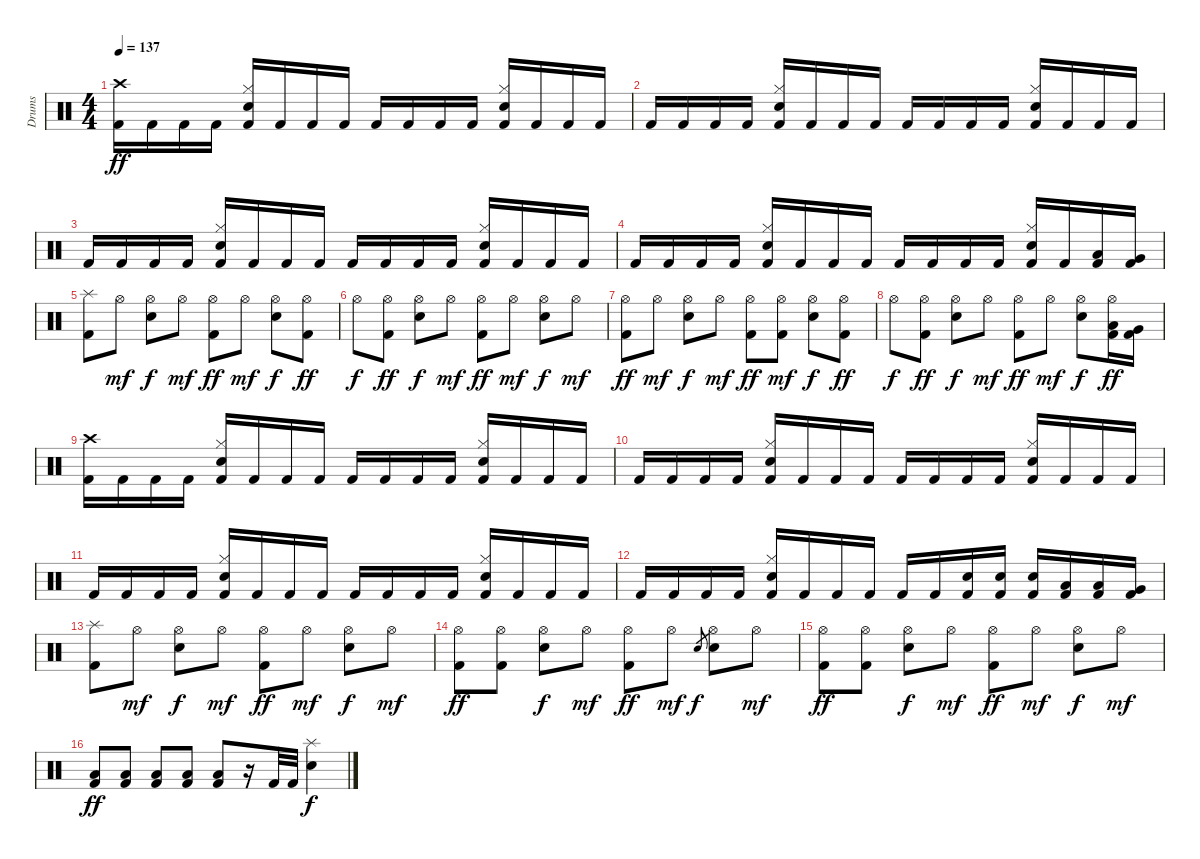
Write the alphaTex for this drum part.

\track ("Drums" "Drums") {instrument percussion}
\staff {score}
\articulation defaults
\ts (4 4)
\tempo 137
\clef neutral
\ks c
("Crash high (hit)" "Kick (hit) 2").16{dy ff} "Kick (hit) 2".16 "Kick (hit) 2".16 "Kick (hit) 2".16 ("Hi-Hat (closed)" "Electric Snare (hit)" "Kick (hit) 2").16 "Kick (hit) 2".16 "Kick (hit) 2".16 "Kick (hit) 2".16 "Kick (hit) 2".16 "Kick (hit) 2".16 "Kick (hit) 2".16 "Kick (hit) 2".16 ("Hi-Hat (closed)" "Electric Snare (hit)" "Kick (hit) 2").16 "Kick (hit) 2".16 "Kick (hit) 2".16 "Kick (hit) 2".16 |
"Kick (hit) 2".16 "Kick (hit) 2".16 "Kick (hit) 2".16 "Kick (hit) 2".16 ("Hi-Hat (closed)" "Electric Snare (hit)" "Kick (hit) 2").16 "Kick (hit) 2".16 "Kick (hit) 2".16 "Kick (hit) 2".16 "Kick (hit) 2".16 "Kick (hit) 2".16 "Kick (hit) 2".16 "Kick (hit) 2".16 ("Hi-Hat (closed)" "Electric Snare (hit)" "Kick (hit) 2").16 "Kick (hit) 2".16 "Kick (hit) 2".16 "Kick (hit) 2".16 |
"Kick (hit) 2".16 "Kick (hit) 2".16 "Kick (hit) 2".16 "Kick (hit) 2".16 ("Hi-Hat (closed)" "Electric Snare (hit)" "Kick (hit) 2").16 "Kick (hit) 2".16 "Kick (hit) 2".16 "Kick (hit) 2".16 "Kick (hit) 2".16 "Kick (hit) 2".16 "Kick (hit) 2".16 "Kick (hit) 2".16 ("Hi-Hat (closed)" "Electric Snare (hit)" "Kick (hit) 2").16 "Kick (hit) 2".16 "Kick (hit) 2".16 "Kick (hit) 2".16 |
"Kick (hit) 2".16 "Kick (hit) 2".16 "Kick (hit) 2".16 "Kick (hit) 2".16 ("Hi-Hat (closed)" "Electric Snare (hit)" "Kick (hit) 2").16 "Kick (hit) 2".16 "Kick (hit) 2".16 "Kick (hit) 2".16 "Kick (hit) 2".16 "Kick (hit) 2".16 "Kick (hit) 2".16 "Kick (hit) 2".16 ("Hi-Hat (closed)" "Electric Snare (hit)" "Kick (hit) 2").16 "Kick (hit) 2".16 ("Low Tom (hit)" "Kick (hit) 2").16 ("Very Low Tom (hit)" "Kick (hit) 2").16 |
("Splash (hit)" "Kick (hit) 2").8 "Hi-Hat (open)".8{dy mf} ("Hi-Hat (open)" "Electric Snare (hit)").8{dy f} "Hi-Hat (open)".8{dy mf} ("Hi-Hat (open)" "Kick (hit) 2").8{dy ff} "Hi-Hat (open)".8{dy mf} ("Hi-Hat (open)" "Electric Snare (hit)").8{dy f} ("Hi-Hat (open)" "Kick (hit) 2").8{dy ff} |
"Hi-Hat (open)".8{dy f} ("Hi-Hat (open)" "Kick (hit) 2").8{dy ff} ("Hi-Hat (open)" "Electric Snare (hit)").8{dy f} "Hi-Hat (open)".8{dy mf} ("Hi-Hat (open)" "Kick (hit) 2").8{dy ff} "Hi-Hat (open)".8{dy mf} ("Hi-Hat (open)" "Electric Snare (hit)").8{dy f} "Hi-Hat (open)".8{dy mf} |
("Hi-Hat (open)" "Kick (hit) 2").8{dy ff} "Hi-Hat (open)".8{dy mf} ("Hi-Hat (open)" "Electric Snare (hit)").8{dy f} "Hi-Hat (open)".8{dy mf} ("Hi-Hat (open)" "Kick (hit) 2").8{dy ff} ("Hi-Hat (open)" "Kick (hit) 2").8{dy mf} ("Hi-Hat (open)" "Electric Snare (hit)").8{dy f} ("Hi-Hat (open)" "Kick (hit) 2").8{dy ff} |
"Hi-Hat (open)".8{dy f} ("Hi-Hat (open)" "Kick (hit) 2").8{dy ff} ("Hi-Hat (open)" "Electric Snare (hit)").8{dy f} "Hi-Hat (open)".8{dy mf} ("Hi-Hat (open)" "Kick (hit) 2").8{dy ff} "Hi-Hat (open)".8{dy mf} ("Hi-Hat (open)" "Electric Snare (hit)").8{dy f} ("Hi-Hat (open)" "Low Tom (hit)" "Kick (hit) 2").16{dy ff} ("Very Low Tom (hit)" "Kick (hit) 2").16 |
("Crash high (hit)" "Kick (hit) 2").16 "Kick (hit) 2".16 "Kick (hit) 2".16 "Kick (hit) 2".16 ("Hi-Hat (closed)" "Electric Snare (hit)" "Kick (hit) 2").16 "Kick (hit) 2".16 "Kick (hit) 2".16 "Kick (hit) 2".16 "Kick (hit) 2".16 "Kick (hit) 2".16 "Kick (hit) 2".16 "Kick (hit) 2".16 ("Hi-Hat (closed)" "Electric Snare (hit)" "Kick (hit) 2").16 "Kick (hit) 2".16 "Kick (hit) 2".16 "Kick (hit) 2".16 |
"Kick (hit) 2".16 "Kick (hit) 2".16 "Kick (hit) 2".16 "Kick (hit) 2".16 ("Hi-Hat (closed)" "Electric Snare (hit)" "Kick (hit) 2").16 "Kick (hit) 2".16 "Kick (hit) 2".16 "Kick (hit) 2".16 "Kick (hit) 2".16 "Kick (hit) 2".16 "Kick (hit) 2".16 "Kick (hit) 2".16 ("Hi-Hat (closed)" "Electric Snare (hit)" "Kick (hit) 2").16 "Kick (hit) 2".16 "Kick (hit) 2".16 "Kick (hit) 2".16 |
"Kick (hit) 2".16 "Kick (hit) 2".16 "Kick (hit) 2".16 "Kick (hit) 2".16 ("Hi-Hat (closed)" "Electric Snare (hit)" "Kick (hit) 2").16 "Kick (hit) 2".16 "Kick (hit) 2".16 "Kick (hit) 2".16 "Kick (hit) 2".16 "Kick (hit) 2".16 "Kick (hit) 2".16 "Kick (hit) 2".16 ("Hi-Hat (closed)" "Electric Snare (hit)" "Kick (hit) 2").16 "Kick (hit) 2".16 "Kick (hit) 2".16 "Kick (hit) 2".16 |
"Kick (hit) 2".16 "Kick (hit) 2".16 "Kick (hit) 2".16 "Kick (hit) 2".16 ("Hi-Hat (closed)" "Electric Snare (hit)" "Kick (hit) 2").16 "Kick (hit) 2".16 "Kick (hit) 2".16 "Kick (hit) 2".16 "Kick (hit) 2".16 "Kick (hit) 2".16 ("Electric Snare (hit)" "Kick (hit) 2").16 ("Electric Snare (hit)" "Kick (hit) 2").16 ("Electric Snare (hit)" "Kick (hit) 2").16 ("Low Tom (hit)" "Kick (hit) 2").16 ("Low Tom (hit)" "Kick (hit) 2").16 ("Very Low Tom (hit)" "Kick (hit) 2").16 |
("Splash (hit)" "Kick (hit) 2").8 "Hi-Hat (open)".8{dy mf} ("Hi-Hat (open)" "Electric Snare (hit)").8{dy f} "Hi-Hat (open)".8{dy mf} ("Hi-Hat (open)" "Kick (hit) 2").8{dy ff} "Hi-Hat (open)".8{dy mf} ("Hi-Hat (open)" "Electric Snare (hit)").8{dy f} "Hi-Hat (open)".8{dy mf} |
("Hi-Hat (open)" "Kick (hit) 2").8{dy ff} ("Hi-Hat (open)" "Kick (hit) 2").8 ("Hi-Hat (open)" "Electric Snare (hit)").8{dy f} "Hi-Hat (open)".8{dy mf} ("Hi-Hat (open)" "Kick (hit) 2").8{dy ff} "Hi-Hat (open)".8{dy mf} "Electric Snare (hit)".8{gr dy f} ("Hi-Hat (open)" "Electric Snare (hit)").8 "Hi-Hat (open)".8{dy mf} |
("Hi-Hat (open)" "Kick (hit) 2").8{dy ff} ("Hi-Hat (open)" "Kick (hit) 2").8 ("Hi-Hat (open)" "Electric Snare (hit)").8{dy f} "Hi-Hat (open)".8{dy mf} ("Hi-Hat (open)" "Kick (hit) 2").8{dy ff} "Hi-Hat (open)".8{dy mf} ("Hi-Hat (open)" "Electric Snare (hit)").8{dy f} "Hi-Hat (open)".8{dy mf} |
("Low Floor Tom (hit)" "Kick (hit) 2").8{dy ff} ("Low Floor Tom (hit)" "Kick (hit) 2").8 ("Low Floor Tom (hit)" "Kick (hit) 2").8 ("Low Floor Tom (hit)" "Kick (hit) 2").8 ("Low Floor Tom (hit)" "Kick (hit) 2").8 r.16 "Kick (hit) 2".32 "Kick (hit) 2".32 ("Splash (hit)" "Electric Snare (hit)").4{dy f}
